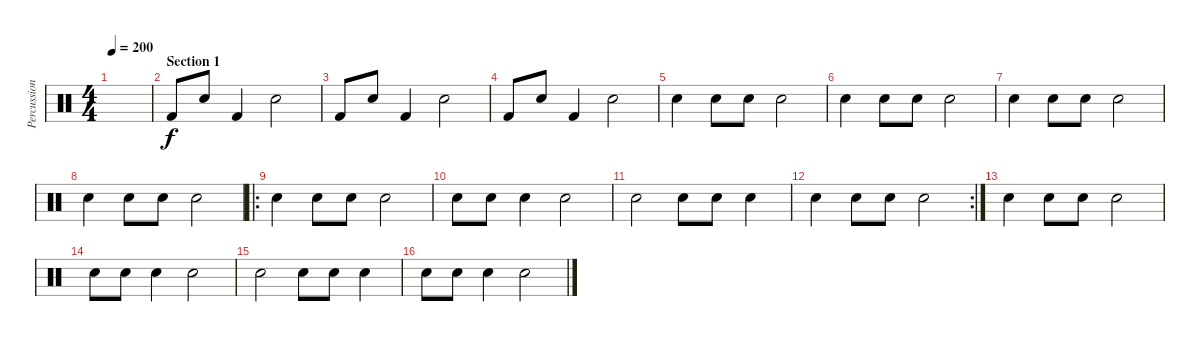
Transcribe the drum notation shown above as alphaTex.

\track ("Percussion" "Percussion") {instrument percussion}
\staff {score}
\articulation defaults
\ts (4 4)
\tempo 200
\clef neutral
\ks c
|
\section ("" "Section 1")
"Kick (hit) 2".8 "Snare (hit) 2".8 "Kick (hit) 2".4 "Snare (hit) 2".2 |
"Kick (hit) 2".8 "Snare (hit) 2".8 "Kick (hit) 2".4 "Snare (hit) 2".2 |
"Kick (hit) 2".8 "Snare (hit) 2".8 "Kick (hit) 2".4 "Snare (hit) 2".2 |
"Electric Snare (hit)".4 "Electric Snare (hit)".8 "Electric Snare (hit)".8 "Hand Clap (hit)".2 |
"Electric Snare (hit)".4 "Electric Snare (hit)".8 "Electric Snare (hit)".8 "Hand Clap (hit)".2 |
"Electric Snare (hit)".4 "Electric Snare (hit)".8 "Electric Snare (hit)".8 "Hand Clap (hit)".2 |
"Electric Snare (hit)".4 "Electric Snare (hit)".8 "Electric Snare (hit)".8 "Hand Clap (hit)".2 |
\ro "Electric Snare (hit)".4 "Electric Snare (hit)".8 "Electric Snare (hit)".8 "Hand Clap (hit)".2
|
"Electric Snare (hit)".8 "Electric Snare (hit)".8 "Electric Snare (hit)".4 "Hand Clap (hit)".2 |
"Electric Snare (hit)".2 "Electric Snare (hit)".8 "Electric Snare (hit)".8 "Hand Clap (hit)".4 |
\rc 2 "Electric Snare (hit)".4 "Electric Snare (hit)".8 "Electric Snare (hit)".8 "Hand Clap (hit)".2
|
"Electric Snare (hit)".4 "Electric Snare (hit)".8 "Electric Snare (hit)".8 "Hand Clap (hit)".2 |
"Electric Snare (hit)".8 "Electric Snare (hit)".8 "Electric Snare (hit)".4 "Hand Clap (hit)".2 |
"Electric Snare (hit)".2 "Electric Snare (hit)".8 "Electric Snare (hit)".8 "Hand Clap (hit)".4 |
"Electric Snare (hit)".8 "Electric Snare (hit)".8 "Electric Snare (hit)".4 "Hand Clap (hit)".2
